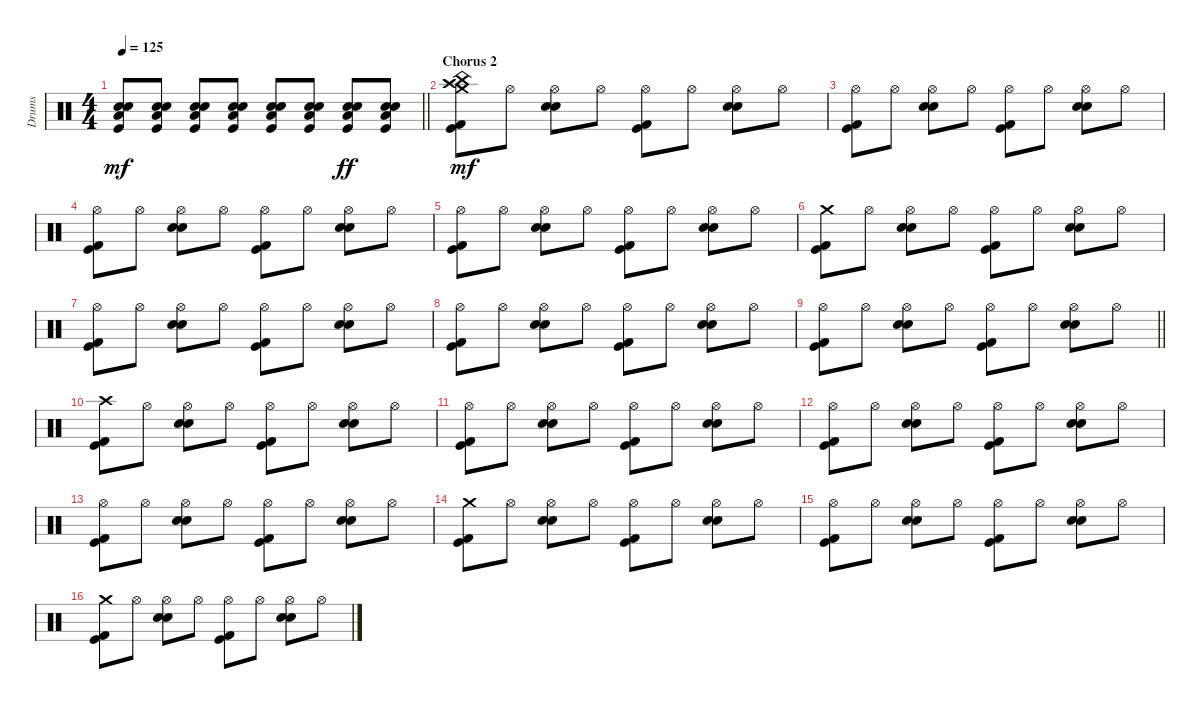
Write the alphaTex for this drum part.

\track ("Drums" "Drums") {instrument percussion}
\staff {score}
\articulation defaults
\ts (4 4)
\tempo 125
\clef neutral
\barLineRight lightlight
\ks c
("Low Floor Tom (hit)" "Snare (hit) 2" "Electric Snare (hit)" "Kick (hit)").8{dy mf} ("Low Floor Tom (hit)" "Snare (hit) 2" "Electric Snare (hit)" "Kick (hit)").8 ("Low Floor Tom (hit)" "Snare (hit) 2" "Electric Snare (hit)" "Kick (hit)").8 ("Low Floor Tom (hit)" "Snare (hit) 2" "Electric Snare (hit)" "Kick (hit)").8 ("Low Floor Tom (hit)" "Snare (hit) 2" "Electric Snare (hit)" "Kick (hit)").8 ("Low Floor Tom (hit)" "Snare (hit) 2" "Electric Snare (hit)" "Kick (hit)").8 ("Low Floor Tom (hit)" "Snare (hit) 2" "Electric Snare (hit)" "Kick (hit)").8{dy ff} ("Low Floor Tom (hit)" "Snare (hit) 2" "Electric Snare (hit)" "Kick (hit)").8 |
\section ("" "Chorus 2")
("Crash high (hit)" "Crash medium (hit)" "China (hit)" "Kick (hit) 2" "Kick (hit)").8{dy mf} "Hi-Hat (open)".8 ("Hi-Hat (open)" "Snare (hit) 2" "Electric Snare (hit)").8 "Hi-Hat (open)".8 ("Hi-Hat (open)" "Kick (hit) 2" "Kick (hit)").8 "Hi-Hat (open)".8 ("Hi-Hat (open)" "Snare (hit) 2" "Electric Snare (hit)").8 "Hi-Hat (open)".8 |
("Hi-Hat (open)" "Kick (hit) 2" "Kick (hit)").8 "Hi-Hat (open)".8 ("Hi-Hat (open)" "Snare (hit) 2" "Electric Snare (hit)").8 "Hi-Hat (open)".8 ("Hi-Hat (open)" "Kick (hit) 2" "Kick (hit)").8 "Hi-Hat (open)".8 ("Hi-Hat (open)" "Snare (hit) 2" "Electric Snare (hit)").8 "Hi-Hat (open)".8 |
("Hi-Hat (open)" "Kick (hit) 2" "Kick (hit)").8 "Hi-Hat (open)".8 ("Hi-Hat (open)" "Snare (hit) 2" "Electric Snare (hit)").8 "Hi-Hat (open)".8 ("Hi-Hat (open)" "Kick (hit) 2" "Kick (hit)").8 "Hi-Hat (open)".8 ("Hi-Hat (open)" "Snare (hit) 2" "Electric Snare (hit)").8 "Hi-Hat (open)".8 |
("Hi-Hat (open)" "Kick (hit) 2" "Kick (hit)").8 "Hi-Hat (open)".8 ("Hi-Hat (open)" "Snare (hit) 2" "Electric Snare (hit)").8 "Hi-Hat (open)".8 ("Hi-Hat (open)" "Kick (hit) 2" "Kick (hit)").8 "Hi-Hat (open)".8 ("Hi-Hat (open)" "Snare (hit) 2" "Electric Snare (hit)").8 "Hi-Hat (open)".8 |
("Crash medium (hit)" "Kick (hit) 2" "Kick (hit)").8 "Hi-Hat (open)".8 ("Hi-Hat (open)" "Snare (hit) 2" "Electric Snare (hit)").8 "Hi-Hat (open)".8 ("Hi-Hat (open)" "Kick (hit) 2" "Kick (hit)").8 "Hi-Hat (open)".8 ("Hi-Hat (open)" "Snare (hit) 2" "Electric Snare (hit)").8 "Hi-Hat (open)".8 |
("Hi-Hat (open)" "Kick (hit) 2" "Kick (hit)").8 "Hi-Hat (open)".8 ("Hi-Hat (open)" "Snare (hit) 2" "Electric Snare (hit)").8 "Hi-Hat (open)".8 ("Hi-Hat (open)" "Kick (hit) 2" "Kick (hit)").8 "Hi-Hat (open)".8 ("Hi-Hat (open)" "Snare (hit) 2" "Electric Snare (hit)").8 "Hi-Hat (open)".8 |
("Hi-Hat (open)" "Kick (hit) 2" "Kick (hit)").8 "Hi-Hat (open)".8 ("Hi-Hat (open)" "Snare (hit) 2" "Electric Snare (hit)").8 "Hi-Hat (open)".8 ("Hi-Hat (open)" "Kick (hit) 2" "Kick (hit)").8 "Hi-Hat (open)".8 ("Hi-Hat (open)" "Snare (hit) 2" "Electric Snare (hit)").8 "Hi-Hat (open)".8 |
\barLineRight lightlight
("Hi-Hat (open)" "Kick (hit) 2" "Kick (hit)").8 "Hi-Hat (open)".8 ("Hi-Hat (open)" "Snare (hit) 2" "Electric Snare (hit)").8 "Hi-Hat (open)".8 ("Hi-Hat (open)" "Kick (hit) 2" "Kick (hit)").8 "Hi-Hat (open)".8 ("Hi-Hat (open)" "Snare (hit) 2" "Electric Snare (hit)").8 "Hi-Hat (open)".8 |
("Crash high (hit)" "Kick (hit) 2" "Kick (hit)").8 "Hi-Hat (open)".8 ("Hi-Hat (open)" "Snare (hit) 2" "Electric Snare (hit)").8 "Hi-Hat (open)".8 ("Hi-Hat (open)" "Kick (hit) 2" "Kick (hit)").8 "Hi-Hat (open)".8 ("Hi-Hat (open)" "Snare (hit) 2" "Electric Snare (hit)").8 "Hi-Hat (open)".8 |
("Hi-Hat (open)" "Kick (hit) 2" "Kick (hit)").8 "Hi-Hat (open)".8 ("Hi-Hat (open)" "Snare (hit) 2" "Electric Snare (hit)").8 "Hi-Hat (open)".8 ("Hi-Hat (open)" "Kick (hit) 2" "Kick (hit)").8 "Hi-Hat (open)".8 ("Hi-Hat (open)" "Snare (hit) 2" "Electric Snare (hit)").8 "Hi-Hat (open)".8 |
("Hi-Hat (open)" "Kick (hit) 2" "Kick (hit)").8 "Hi-Hat (open)".8 ("Hi-Hat (open)" "Snare (hit) 2" "Electric Snare (hit)").8 "Hi-Hat (open)".8 ("Hi-Hat (open)" "Kick (hit) 2" "Kick (hit)").8 "Hi-Hat (open)".8 ("Hi-Hat (open)" "Snare (hit) 2" "Electric Snare (hit)").8 "Hi-Hat (open)".8 |
("Hi-Hat (open)" "Kick (hit) 2" "Kick (hit)").8 "Hi-Hat (open)".8 ("Hi-Hat (open)" "Snare (hit) 2" "Electric Snare (hit)").8 "Hi-Hat (open)".8 ("Hi-Hat (open)" "Kick (hit) 2" "Kick (hit)").8 "Hi-Hat (open)".8 ("Hi-Hat (open)" "Snare (hit) 2" "Electric Snare (hit)").8 "Hi-Hat (open)".8 |
("Crash medium (hit)" "Kick (hit) 2" "Kick (hit)").8 "Hi-Hat (open)".8 ("Hi-Hat (open)" "Snare (hit) 2" "Electric Snare (hit)").8 "Hi-Hat (open)".8 ("Hi-Hat (open)" "Kick (hit) 2" "Kick (hit)").8 "Hi-Hat (open)".8 ("Hi-Hat (open)" "Snare (hit) 2" "Electric Snare (hit)").8 "Hi-Hat (open)".8 |
("Hi-Hat (open)" "Kick (hit) 2" "Kick (hit)").8 "Hi-Hat (open)".8 ("Hi-Hat (open)" "Snare (hit) 2" "Electric Snare (hit)").8 "Hi-Hat (open)".8 ("Hi-Hat (open)" "Kick (hit) 2" "Kick (hit)").8 "Hi-Hat (open)".8 ("Hi-Hat (open)" "Snare (hit) 2" "Electric Snare (hit)").8 "Hi-Hat (open)".8 |
("Crash medium (hit)" "Kick (hit) 2" "Kick (hit)").8 "Hi-Hat (open)".8 ("Hi-Hat (open)" "Snare (hit) 2" "Electric Snare (hit)").8 "Hi-Hat (open)".8 ("Hi-Hat (open)" "Kick (hit) 2" "Kick (hit)").8 "Hi-Hat (open)".8 ("Hi-Hat (open)" "Snare (hit) 2" "Electric Snare (hit)").8 "Hi-Hat (open)".8
